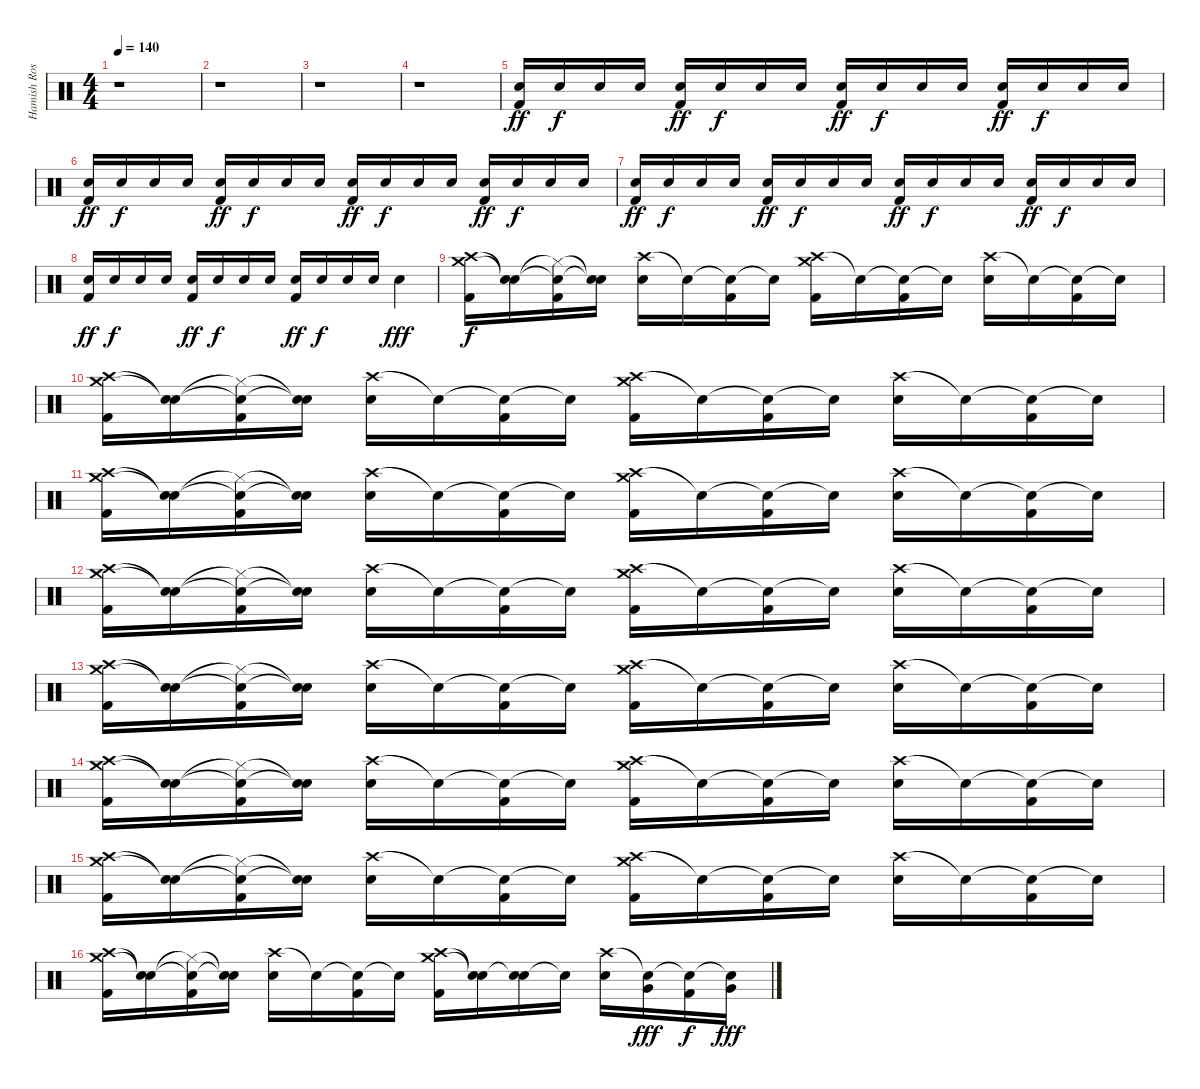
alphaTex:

\track ("Hamish Rosser" "Hamish Ros") {instrument percussion}
\staff {score}
\articulation defaults
\ts (4 4)
\tempo 140
\clef neutral
\ks c
r.1{dy ff} |
r.1 |
r.1 |
r.1 |
("Electric Snare (hit)" "Kick (hit) 2").16{volume 8} "Electric Snare (hit)".16{dy f} "Electric Snare (hit)".16 "Electric Snare (hit)".16 ("Electric Snare (hit)" "Kick (hit) 2").16{dy ff} "Electric Snare (hit)".16{dy f} "Electric Snare (hit)".16 "Electric Snare (hit)".16 ("Electric Snare (hit)" "Kick (hit) 2").16{dy ff volume 9} "Electric Snare (hit)".16{dy f} "Electric Snare (hit)".16 "Electric Snare (hit)".16 ("Electric Snare (hit)" "Kick (hit) 2").16{dy ff} "Electric Snare (hit)".16{dy f} "Electric Snare (hit)".16 "Electric Snare (hit)".16 |
("Electric Snare (hit)" "Kick (hit) 2").16{dy ff volume 10} "Electric Snare (hit)".16{dy f} "Electric Snare (hit)".16 "Electric Snare (hit)".16 ("Electric Snare (hit)" "Kick (hit) 2").16{dy ff} "Electric Snare (hit)".16{dy f} "Electric Snare (hit)".16 "Electric Snare (hit)".16 ("Electric Snare (hit)" "Kick (hit) 2").16{dy ff volume 11} "Electric Snare (hit)".16{dy f} "Electric Snare (hit)".16 "Electric Snare (hit)".16 ("Electric Snare (hit)" "Kick (hit) 2").16{dy ff} "Electric Snare (hit)".16{dy f} "Electric Snare (hit)".16 "Electric Snare (hit)".16 |
("Electric Snare (hit)" "Kick (hit) 2").16{dy ff volume 12} "Electric Snare (hit)".16{dy f} "Electric Snare (hit)".16 "Electric Snare (hit)".16 ("Electric Snare (hit)" "Kick (hit) 2").16{dy ff} "Electric Snare (hit)".16{dy f} "Electric Snare (hit)".16 "Electric Snare (hit)".16 ("Electric Snare (hit)" "Kick (hit) 2").16{dy ff volume 13} "Electric Snare (hit)".16{dy f} "Electric Snare (hit)".16 "Electric Snare (hit)".16 ("Electric Snare (hit)" "Kick (hit) 2").16{dy ff} "Electric Snare (hit)".16{dy f} "Electric Snare (hit)".16 "Electric Snare (hit)".16 |
("Electric Snare (hit)" "Kick (hit) 2").16{dy ff volume 14} "Electric Snare (hit)".16{dy f} "Electric Snare (hit)".16 "Electric Snare (hit)".16 ("Electric Snare (hit)" "Kick (hit) 2").16{dy ff} "Electric Snare (hit)".16{dy f} "Electric Snare (hit)".16 "Electric Snare (hit)".16 ("Electric Snare (hit)" "Kick (hit) 2").16{dy ff volume 15} "Electric Snare (hit)".16{dy f} "Electric Snare (hit)".16 "Electric Snare (hit)".16 "Electric Snare (hit)".4{dy fff volume 16} |
("Crash high (hit)" "Crash medium (hit)" "Kick (hit) 2").16{dy f} ("Snare (hit)"{t} "Snare (hit)"{t}).16 ("Snare (hit)"{t} "Hi-Hat (closed)"{t} "Kick (hit) 2").16 ("Snare (hit)"{t} "Snare (hit)"{t}).16 ("Crash high (hit)" "Electric Snare (hit)").16 "Snare (hit)"{t}.16 ("Snare (hit)"{t} "Kick (hit) 2").16 "Snare (hit)"{t}.16 ("Crash high (hit)" "Crash medium (hit)" "Kick (hit) 2").16 "Snare (hit)"{t}.16 ("Snare (hit)"{t} "Kick (hit) 2").16 "Snare (hit)"{t}.16 ("Crash high (hit)" "Electric Snare (hit)").16 "Snare (hit)"{t}.16 ("Snare (hit)"{t} "Kick (hit) 2").16 "Snare (hit)"{t}.16 |
("Crash high (hit)" "Crash medium (hit)" "Kick (hit) 2").16 ("Snare (hit)"{t} "Snare (hit)"{t}).16 ("Snare (hit)"{t} "Hi-Hat (closed)"{t} "Kick (hit) 2").16 ("Snare (hit)"{t} "Snare (hit)"{t}).16 ("Crash high (hit)" "Electric Snare (hit)").16 "Snare (hit)"{t}.16 ("Snare (hit)"{t} "Kick (hit) 2").16 "Snare (hit)"{t}.16 ("Crash high (hit)" "Crash medium (hit)" "Kick (hit) 2").16 "Snare (hit)"{t}.16 ("Snare (hit)"{t} "Kick (hit) 2").16 "Snare (hit)"{t}.16 ("Crash high (hit)" "Electric Snare (hit)").16 "Snare (hit)"{t}.16 ("Snare (hit)"{t} "Kick (hit) 2").16 "Snare (hit)"{t}.16 |
("Crash high (hit)" "Crash medium (hit)" "Kick (hit) 2").16 ("Snare (hit)"{t} "Snare (hit)"{t}).16 ("Snare (hit)"{t} "Hi-Hat (closed)"{t} "Kick (hit) 2").16 ("Snare (hit)"{t} "Snare (hit)"{t}).16 ("Crash high (hit)" "Electric Snare (hit)").16 "Snare (hit)"{t}.16 ("Snare (hit)"{t} "Kick (hit) 2").16 "Snare (hit)"{t}.16 ("Crash high (hit)" "Crash medium (hit)" "Kick (hit) 2").16 "Snare (hit)"{t}.16 ("Snare (hit)"{t} "Kick (hit) 2").16 "Snare (hit)"{t}.16 ("Crash high (hit)" "Electric Snare (hit)").16 "Snare (hit)"{t}.16 ("Snare (hit)"{t} "Kick (hit) 2").16 "Snare (hit)"{t}.16 |
("Crash high (hit)" "Crash medium (hit)" "Kick (hit) 2").16 ("Snare (hit)"{t} "Snare (hit)"{t}).16 ("Snare (hit)"{t} "Hi-Hat (closed)"{t} "Kick (hit) 2").16 ("Snare (hit)"{t} "Snare (hit)"{t}).16 ("Crash high (hit)" "Electric Snare (hit)").16 "Snare (hit)"{t}.16 ("Snare (hit)"{t} "Kick (hit) 2").16 "Snare (hit)"{t}.16 ("Crash high (hit)" "Crash medium (hit)" "Kick (hit) 2").16 "Snare (hit)"{t}.16 ("Snare (hit)"{t} "Kick (hit) 2").16 "Snare (hit)"{t}.16 ("Crash high (hit)" "Electric Snare (hit)").16 "Snare (hit)"{t}.16 ("Snare (hit)"{t} "Kick (hit) 2").16 "Snare (hit)"{t}.16 |
("Crash high (hit)" "Crash medium (hit)" "Kick (hit) 2").16 ("Snare (hit)"{t} "Snare (hit)"{t}).16 ("Snare (hit)"{t} "Hi-Hat (closed)"{t} "Kick (hit) 2").16 ("Snare (hit)"{t} "Snare (hit)"{t}).16 ("Crash high (hit)" "Electric Snare (hit)").16 "Snare (hit)"{t}.16 ("Snare (hit)"{t} "Kick (hit) 2").16 "Snare (hit)"{t}.16 ("Crash high (hit)" "Crash medium (hit)" "Kick (hit) 2").16 "Snare (hit)"{t}.16 ("Snare (hit)"{t} "Kick (hit) 2").16 "Snare (hit)"{t}.16 ("Crash high (hit)" "Electric Snare (hit)").16 "Snare (hit)"{t}.16 ("Snare (hit)"{t} "Kick (hit) 2").16 "Snare (hit)"{t}.16 |
("Crash high (hit)" "Crash medium (hit)" "Kick (hit) 2").16 ("Snare (hit)"{t} "Snare (hit)"{t}).16 ("Snare (hit)"{t} "Hi-Hat (closed)"{t} "Kick (hit) 2").16 ("Snare (hit)"{t} "Snare (hit)"{t}).16 ("Crash high (hit)" "Electric Snare (hit)").16 "Snare (hit)"{t}.16 ("Snare (hit)"{t} "Kick (hit) 2").16 "Snare (hit)"{t}.16 ("Crash high (hit)" "Crash medium (hit)" "Kick (hit) 2").16 "Snare (hit)"{t}.16 ("Snare (hit)"{t} "Kick (hit) 2").16 "Snare (hit)"{t}.16 ("Crash high (hit)" "Electric Snare (hit)").16 "Snare (hit)"{t}.16 ("Snare (hit)"{t} "Kick (hit) 2").16 "Snare (hit)"{t}.16 |
("Crash high (hit)" "Crash medium (hit)" "Kick (hit) 2").16 ("Snare (hit)"{t} "Snare (hit)"{t}).16 ("Snare (hit)"{t} "Hi-Hat (closed)"{t} "Kick (hit) 2").16 ("Snare (hit)"{t} "Snare (hit)"{t}).16 ("Crash high (hit)" "Electric Snare (hit)").16 "Snare (hit)"{t}.16 ("Snare (hit)"{t} "Kick (hit) 2").16 "Snare (hit)"{t}.16 ("Crash high (hit)" "Crash medium (hit)" "Kick (hit) 2").16 "Snare (hit)"{t}.16 ("Snare (hit)"{t} "Kick (hit) 2").16 "Snare (hit)"{t}.16 ("Crash high (hit)" "Electric Snare (hit)").16 "Snare (hit)"{t}.16 ("Snare (hit)"{t} "Kick (hit) 2").16 "Snare (hit)"{t}.16 |
("Crash high (hit)" "Crash medium (hit)" "Kick (hit) 2").16 ("Snare (hit)"{t} "Snare (hit)"{t}).16 ("Snare (hit)"{t} "Hi-Hat (closed)"{t} "Kick (hit) 2").16 ("Snare (hit)"{t} "Snare (hit)"{t}).16 ("Crash high (hit)" "Electric Snare (hit)").16 "Snare (hit)"{t}.16 ("Snare (hit)"{t} "Kick (hit) 2").16 "Snare (hit)"{t}.16 ("Crash high (hit)" "Crash medium (hit)" "Kick (hit) 2").16 ("Snare (hit)"{t} "Snare (hit)"{t}).16 ("Snare (hit)"{t} "Electric Snare (hit)").16 "Snare (hit)"{t}.16 ("Crash high (hit)" "Electric Snare (hit)").16 ("Snare (hit)"{t} "Very Low Tom (hit)").16{dy fff} ("Snare (hit)"{t} "Kick (hit) 2").16{dy f} ("Snare (hit)"{t} "Very Low Tom (hit)").16{dy fff}
